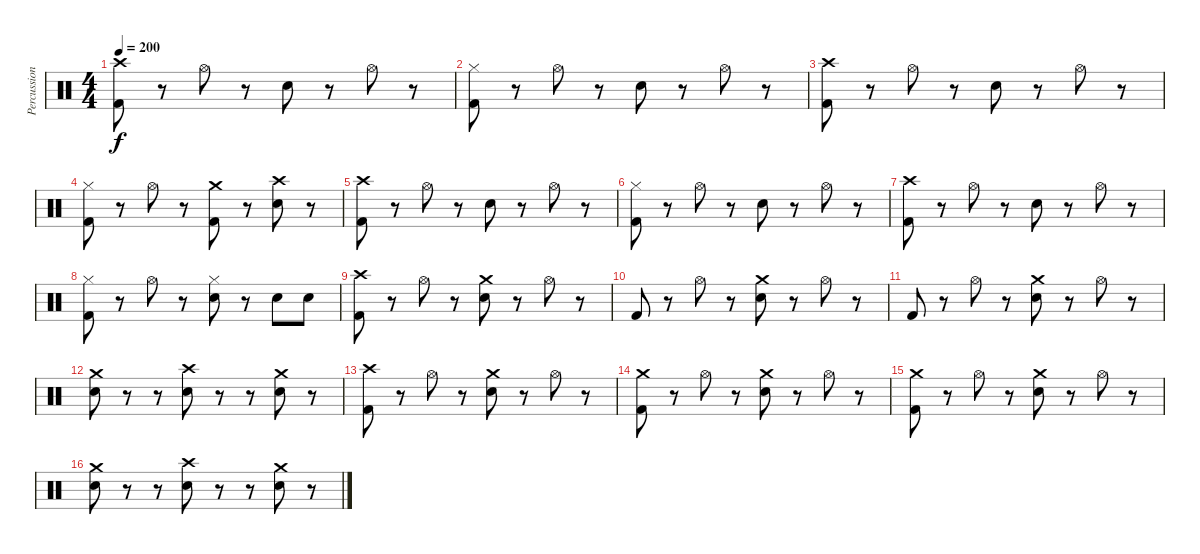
\track ("Percussion" "Percussion") {instrument percussion}
\staff {score}
\articulation defaults
\ts (4 4)
\tempo 200
\clef neutral
\ks c
("Crash high (hit)" "Kick (hit) 2").8{dy f} r.8 "Hi-Hat (open)".8 r.8 "Snare (hit) 2".8 r.8 "Hi-Hat (open)".8 r.8 |
("Hi-Hat (closed)" "Kick (hit) 2").8 r.8 "Hi-Hat (open)".8 r.8 "Snare (hit) 2".8 r.8 "Hi-Hat (open)".8 r.8 |
("Crash high (hit)" "Kick (hit) 2").8 r.8 "Hi-Hat (open)".8 r.8 "Snare (hit) 2".8 r.8 "Hi-Hat (open)".8 r.8 |
("Hi-Hat (closed)" "Kick (hit) 2").8 r.8 "Hi-Hat (open)".8 r.8 ("Crash medium (hit)" "Kick (hit) 2").8 r.8 ("Crash high (hit)" "Snare (hit) 2").8 r.8 |
("Crash high (hit)" "Kick (hit) 2").8 r.8 "Hi-Hat (open)".8 r.8 "Snare (hit) 2".8 r.8 "Hi-Hat (open)".8 r.8 |
("Hi-Hat (closed)" "Kick (hit) 2").8 r.8 "Hi-Hat (open)".8 r.8 "Snare (hit) 2".8 r.8 "Hi-Hat (open)".8 r.8 |
("Crash high (hit)" "Kick (hit) 2").8 r.8 "Hi-Hat (open)".8 r.8 "Snare (hit) 2".8 r.8 "Hi-Hat (open)".8 r.8 |
("Hi-Hat (closed)" "Kick (hit) 2").8 r.8 "Hi-Hat (open)".8 r.8 ("Hi-Hat (closed)" "Snare (hit) 2").8 r.8 "Snare (hit) 2".8 "Snare (hit) 2".8 |
("Crash high (hit)" "Kick (hit) 2").8 r.8 "Hi-Hat (open)".8 r.8 ("Crash medium (hit)" "Snare (hit) 2").8 r.8 "Hi-Hat (open)".8 r.8 |
"Kick (hit) 2".8 r.8 "Hi-Hat (open)".8 r.8 ("Crash medium (hit)" "Snare (hit) 2").8 r.8 "Hi-Hat (open)".8 r.8 |
"Kick (hit) 2".8 r.8 "Hi-Hat (open)".8 r.8 ("Crash medium (hit)" "Snare (hit) 2").8 r.8 "Hi-Hat (open)".8 r.8 |
("Crash medium (hit)" "Snare (hit) 2").8 r.8 r.8 ("Crash high (hit)" "Snare (hit) 2").8 r.8 r.8 ("Crash medium (hit)" "Snare (hit) 2").8 r.8 |
("Crash high (hit)" "Kick (hit) 2").8 r.8 "Hi-Hat (open)".8 r.8 ("Crash medium (hit)" "Snare (hit) 2").8 r.8 "Hi-Hat (open)".8 r.8 |
("Crash medium (hit)" "Kick (hit) 2").8 r.8 "Hi-Hat (open)".8 r.8 ("Crash medium (hit)" "Snare (hit) 2").8 r.8 "Hi-Hat (open)".8 r.8 |
("Crash medium (hit)" "Kick (hit) 2").8 r.8 "Hi-Hat (open)".8 r.8 ("Crash medium (hit)" "Snare (hit) 2").8 r.8 "Hi-Hat (open)".8 r.8 |
("Crash medium (hit)" "Snare (hit) 2").8 r.8 r.8 ("Crash high (hit)" "Snare (hit) 2").8 r.8 r.8 ("Crash medium (hit)" "Snare (hit) 2").8 r.8
